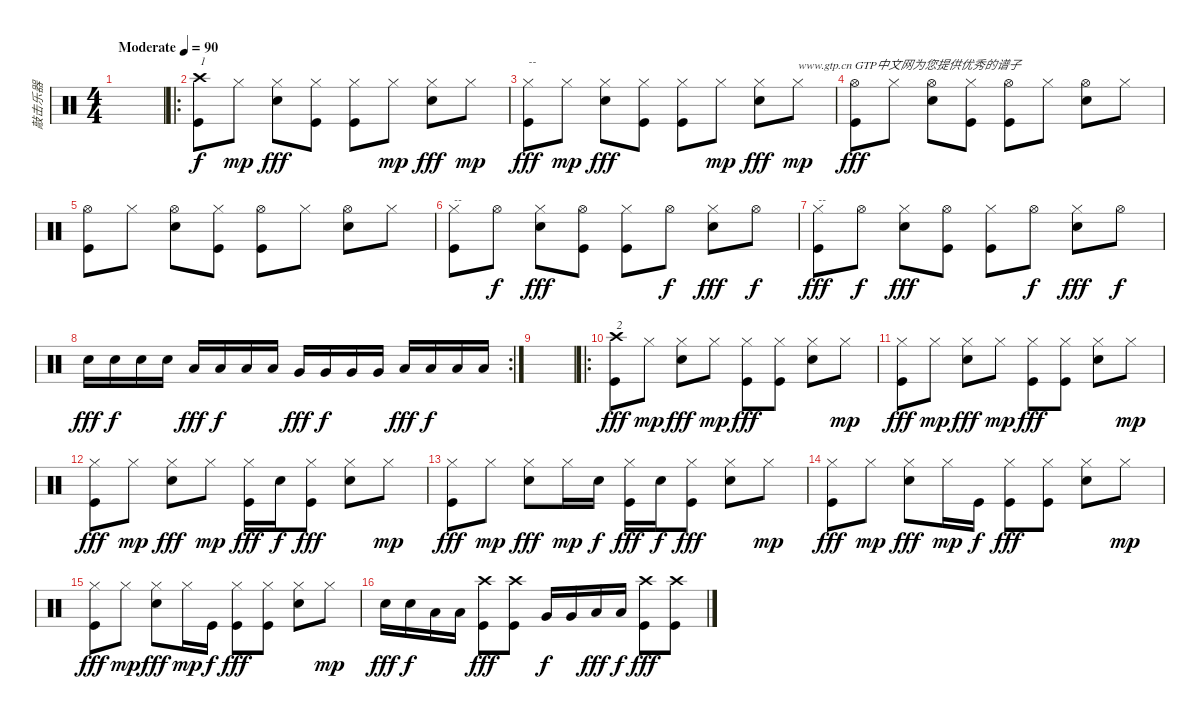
\track ("敲击乐器" "敲击乐器") {instrument percussion}
\staff {score}
\articulation defaults
\ts (4 4)
\tempo (90 "Moderate")
\clef neutral
\ks c
|
\ro
("Crash high (hit)" "Kick (hit)").8{txt "1"} "Hi-Hat (closed)".8{dy mp} ("Hi-Hat (closed)" "Electric Snare (hit)").8{dy fff} ("Hi-Hat (closed)" "Kick (hit)").8 ("Hi-Hat (closed)" "Kick (hit)").8 "Hi-Hat (closed)".8{dy mp} ("Hi-Hat (closed)" "Electric Snare (hit)").8{dy fff} "Hi-Hat (closed)".8{dy mp} |
("Hi-Hat (closed)" "Kick (hit)").8{txt "--" dy fff} "Hi-Hat (closed)".8{dy mp} ("Hi-Hat (closed)" "Electric Snare (hit)").8{dy fff} ("Hi-Hat (closed)" "Kick (hit)").8 ("Hi-Hat (closed)" "Kick (hit)").8 "Hi-Hat (closed)".8{dy mp} ("Hi-Hat (closed)" "Electric Snare (hit)").8{dy fff} "Hi-Hat (closed)".8{txt "www.gtp.cn GTP中文网为您提供优秀的谱子" dy mp} |
("Hi-Hat (open)" "Kick (hit)").8{dy fff} "Hi-Hat (closed)".8 ("Hi-Hat (open)" "Electric Snare (hit)").8 ("Hi-Hat (closed)" "Kick (hit)").8 ("Hi-Hat (open)" "Kick (hit)").8 "Hi-Hat (closed)".8 ("Hi-Hat (open)" "Electric Snare (hit)").8 "Hi-Hat (closed)".8 |
("Hi-Hat (open)" "Kick (hit)").8 "Hi-Hat (closed)".8 ("Hi-Hat (open)" "Electric Snare (hit)").8 ("Hi-Hat (closed)" "Kick (hit)").8 ("Hi-Hat (open)" "Kick (hit)").8 "Hi-Hat (closed)".8 ("Hi-Hat (open)" "Electric Snare (hit)").8 "Hi-Hat (closed)".8 |
("Hi-Hat (closed)" "Kick (hit)").8{txt "--"} "Hi-Hat (open)".8{dy f} ("Hi-Hat (closed)" "Electric Snare (hit)").8{dy fff} ("Hi-Hat (open)" "Kick (hit)").8 ("Hi-Hat (closed)" "Kick (hit)").8 "Hi-Hat (open)".8{dy f} ("Hi-Hat (closed)" "Electric Snare (hit)").8{dy fff} "Hi-Hat (open)".8{dy f} |
("Hi-Hat (closed)" "Kick (hit)").8{txt "--" dy fff} "Hi-Hat (open)".8{dy f} ("Hi-Hat (closed)" "Electric Snare (hit)").8{dy fff} ("Hi-Hat (open)" "Kick (hit)").8 ("Hi-Hat (closed)" "Kick (hit)").8 "Hi-Hat (open)".8{dy f} ("Hi-Hat (closed)" "Electric Snare (hit)").8{dy fff} "Hi-Hat (open)".8{dy f} |
\rc 2 "Electric Snare (hit)".16{dy fff} "Electric Snare (hit)".16{dy f} "Electric Snare (hit)".16 "Electric Snare (hit)".16 "Low Tom (hit)".16{dy fff} "Low Tom (hit)".16{dy f} "Low Tom (hit)".16 "Low Tom (hit)".16 "Very Low Tom (hit)".16{dy fff} "Very Low Tom (hit)".16{dy f} "Very Low Tom (hit)".16 "Very Low Tom (hit)".16 "Low Floor Tom (hit)".16{dy fff} "Low Floor Tom (hit)".16{dy f} "Low Floor Tom (hit)".16 "Low Floor Tom (hit)".16
|
|
\ro
("Crash high (hit)" "Kick (hit)").8{txt "2" dy fff} "Hi-Hat (closed)".8{dy mp} ("Hi-Hat (closed)" "Electric Snare (hit)").8{dy fff} "Hi-Hat (closed)".8{dy mp} ("Hi-Hat (closed)" "Kick (hit)").8{dy fff} ("Hi-Hat (closed)" "Kick (hit)").8 ("Hi-Hat (closed)" "Electric Snare (hit)").8 "Hi-Hat (closed)".8{dy mp} |
("Hi-Hat (closed)" "Kick (hit)").8{dy fff} "Hi-Hat (closed)".8{dy mp} ("Hi-Hat (closed)" "Electric Snare (hit)").8{dy fff} "Hi-Hat (closed)".8{dy mp} ("Hi-Hat (closed)" "Kick (hit)").8{dy fff} ("Hi-Hat (closed)" "Kick (hit)").8 ("Hi-Hat (closed)" "Electric Snare (hit)").8 "Hi-Hat (closed)".8{dy mp} |
("Hi-Hat (closed)" "Kick (hit)").8{dy fff} "Hi-Hat (closed)".8{dy mp} ("Hi-Hat (closed)" "Electric Snare (hit)").8{dy fff} "Hi-Hat (closed)".8{dy mp} ("Hi-Hat (closed)" "Kick (hit)").16{dy fff} "Electric Snare (hit)".16{dy f} ("Hi-Hat (closed)" "Kick (hit)").8{dy fff} ("Hi-Hat (closed)" "Electric Snare (hit)").8 "Hi-Hat (closed)".8{dy mp} |
("Hi-Hat (closed)" "Kick (hit)").8{dy fff} "Hi-Hat (closed)".8{dy mp} ("Hi-Hat (closed)" "Electric Snare (hit)").8{dy fff} "Hi-Hat (closed)".16{dy mp} "Electric Snare (hit)".16{dy f} ("Hi-Hat (closed)" "Kick (hit)").16{dy fff} "Electric Snare (hit)".16{dy f} ("Hi-Hat (closed)" "Kick (hit)").8{dy fff} ("Hi-Hat (closed)" "Electric Snare (hit)").8 "Hi-Hat (closed)".8{dy mp} |
("Hi-Hat (closed)" "Kick (hit)").8{dy fff} "Hi-Hat (closed)".8{dy mp} ("Hi-Hat (closed)" "Electric Snare (hit)").8{dy fff} "Hi-Hat (closed)".16{dy mp} "Kick (hit)".16{dy f} ("Hi-Hat (closed)" "Kick (hit)").8{dy fff} ("Hi-Hat (closed)" "Kick (hit)").8 ("Hi-Hat (closed)" "Electric Snare (hit)").8 "Hi-Hat (closed)".8{dy mp} |
("Hi-Hat (closed)" "Kick (hit)").8{dy fff} "Hi-Hat (closed)".8{dy mp} ("Hi-Hat (closed)" "Electric Snare (hit)").8{dy fff} "Hi-Hat (closed)".16{dy mp} "Kick (hit)".16{dy f} ("Hi-Hat (closed)" "Kick (hit)").8{dy fff} ("Hi-Hat (closed)" "Kick (hit)").8 ("Hi-Hat (closed)" "Electric Snare (hit)").8 "Hi-Hat (closed)".8{dy mp} |
"Electric Snare (hit)".16{dy fff} "Electric Snare (hit)".16{dy f} "Low Tom (hit)".16 "Low Tom (hit)".16 ("Crash high (hit)" "Kick (hit)").8{dy fff} ("Crash high (hit)" "Kick (hit)").8 "Very Low Tom (hit)".16{dy f} "Very Low Tom (hit)".16 "Low Floor Tom (hit)".16{dy fff} "Low Floor Tom (hit)".16{dy f} ("Crash high (hit)" "Kick (hit)").8{dy fff} ("Crash high (hit)" "Kick (hit)").8
